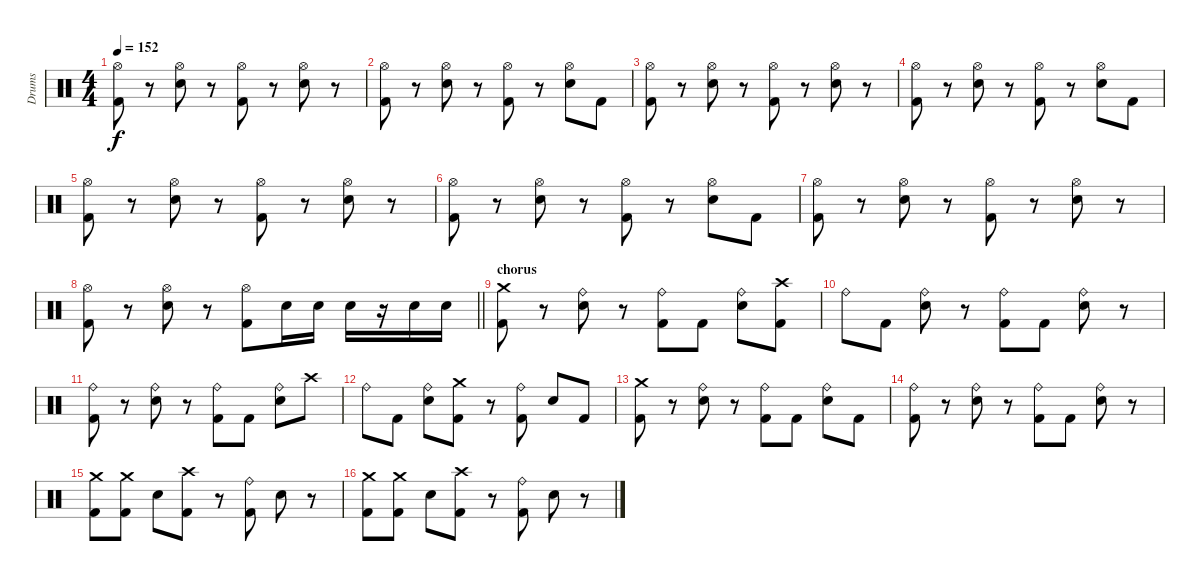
\track ("Drums" "Drums") {instrument percussion}
\staff {score}
\articulation defaults
\ts (4 4)
\tempo 152
\clef neutral
\ks c
("Hi-Hat (open)" "Kick (hit) 2").8{dy f} r.8 ("Hi-Hat (open)" "Snare (hit) 2").8 r.8 ("Hi-Hat (open)" "Kick (hit) 2").8 r.8 ("Hi-Hat (open)" "Snare (hit) 2").8 r.8 |
("Hi-Hat (open)" "Kick (hit) 2").8 r.8 ("Hi-Hat (open)" "Snare (hit) 2").8 r.8 ("Hi-Hat (open)" "Kick (hit) 2").8 r.8 ("Hi-Hat (open)" "Snare (hit) 2").8 "Kick (hit) 2".8 |
("Hi-Hat (open)" "Kick (hit) 2").8 r.8 ("Hi-Hat (open)" "Snare (hit) 2").8 r.8 ("Hi-Hat (open)" "Kick (hit) 2").8 r.8 ("Hi-Hat (open)" "Snare (hit) 2").8 r.8 |
("Hi-Hat (open)" "Kick (hit) 2").8 r.8 ("Hi-Hat (open)" "Snare (hit) 2").8 r.8 ("Hi-Hat (open)" "Kick (hit) 2").8 r.8 ("Hi-Hat (open)" "Snare (hit) 2").8 "Kick (hit) 2".8 |
("Hi-Hat (open)" "Kick (hit) 2").8 r.8 ("Hi-Hat (open)" "Snare (hit) 2").8 r.8 ("Hi-Hat (open)" "Kick (hit) 2").8 r.8 ("Hi-Hat (open)" "Snare (hit) 2").8 r.8 |
("Hi-Hat (open)" "Kick (hit) 2").8 r.8 ("Hi-Hat (open)" "Snare (hit) 2").8 r.8 ("Hi-Hat (open)" "Kick (hit) 2").8 r.8 ("Hi-Hat (open)" "Snare (hit) 2").8 "Kick (hit) 2".8 |
("Hi-Hat (open)" "Kick (hit) 2").8 r.8 ("Hi-Hat (open)" "Snare (hit) 2").8 r.8 ("Hi-Hat (open)" "Kick (hit) 2").8 r.8 ("Hi-Hat (open)" "Snare (hit) 2").8 r.8 |
\barLineRight lightlight
("Hi-Hat (open)" "Kick (hit) 2").8 r.8 ("Hi-Hat (open)" "Snare (hit) 2").8 r.8 ("Hi-Hat (open)" "Kick (hit) 2").8 "Snare (hit) 2".16 "Snare (hit) 2".16 "Snare (hit) 2".16 r.16 "Snare (hit) 2".16 "Snare (hit) 2".16 |
\section ("" "chorus")
("Crash medium (hit)" "Kick (hit) 2").8 r.8 ("Snare (hit) 2" "Ride (bell)").8 r.8 ("Kick (hit) 2" "Ride (bell)").8 "Kick (hit) 2".8 ("Snare (hit) 2" "Ride (bell)").8 ("Crash high (hit)" "Kick (hit) 2").8 |
"Ride (bell)".8 "Kick (hit) 2".8 ("Snare (hit) 2" "Ride (bell)").8 r.8 ("Ride (bell)" "Kick (hit) 2").8 "Kick (hit) 2".8 ("Snare (hit) 2" "Ride (bell)").8 r.8 |
("Ride (bell)" "Kick (hit) 2").8 r.8 ("Snare (hit) 2" "Ride (bell)").8 r.8 ("Kick (hit) 2" "Ride (bell)").8 "Kick (hit) 2".8 ("Snare (hit) 2" "Ride (bell)").8 "Crash high (hit)".8 |
"Ride (bell)".8 "Kick (hit) 2".8 ("Snare (hit) 2" "Ride (bell)").8 ("Kick (hit) 2" "Crash medium (hit)").8 r.8 ("Kick (hit) 2" "Ride (bell)").8 "Snare (hit) 2".8 "Kick (hit) 2".8 |
("Crash medium (hit)" "Kick (hit) 2").8 r.8 ("Snare (hit) 2" "Ride (bell)").8 r.8 ("Kick (hit) 2" "Ride (bell)").8 "Kick (hit) 2".8 ("Snare (hit) 2" "Ride (bell)").8 "Kick (hit) 2".8 |
("Ride (bell)" "Kick (hit) 2").8 r.8 ("Snare (hit) 2" "Ride (bell)").8 r.8 ("Kick (hit) 2" "Ride (bell)").8 "Kick (hit) 2".8 ("Snare (hit) 2" "Ride (bell)").8 r.8 |
("Crash medium (hit)" "Kick (hit) 2").8 ("Crash medium (hit)" "Kick (hit) 2").8 "Snare (hit) 2".8 ("Crash high (hit)" "Kick (hit) 2").8 r.8 ("Kick (hit) 2" "Ride (bell)").8 "Snare (hit) 2".8 r.8 |
("Crash medium (hit)" "Kick (hit) 2").8 ("Crash medium (hit)" "Kick (hit) 2").8 "Snare (hit) 2".8 ("Crash high (hit)" "Kick (hit) 2").8 r.8 ("Kick (hit) 2" "Ride (bell)").8 "Snare (hit) 2".8 r.8
